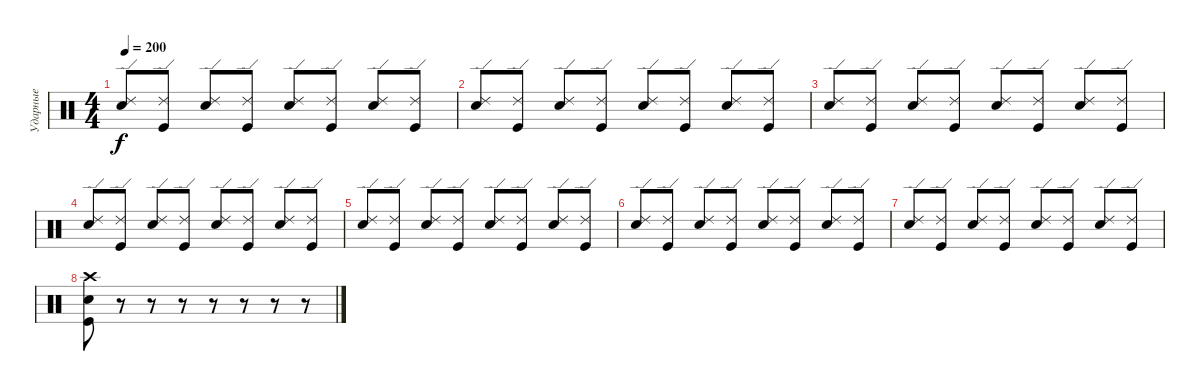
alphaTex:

\track ("Ударные" "Ударные") {instrument percussion}
\staff {score}
\articulation defaults
\ts (4 4)
\tempo 200
\clef neutral
\ks c
("Ride (edge) 2" "Electric Snare (hit)").8{dy f} ("Ride (edge) 2" "Kick (hit)").8 ("Ride (edge) 2" "Electric Snare (hit)").8 ("Ride (edge) 2" "Kick (hit)").8 ("Ride (edge) 2" "Electric Snare (hit)").8 ("Ride (edge) 2" "Kick (hit)").8 ("Ride (edge) 2" "Electric Snare (hit)").8 ("Ride (edge) 2" "Kick (hit)").8 |
("Ride (edge) 2" "Electric Snare (hit)").8 ("Ride (edge) 2" "Kick (hit)").8 ("Ride (edge) 2" "Electric Snare (hit)").8 ("Ride (edge) 2" "Kick (hit)").8 ("Ride (edge) 2" "Electric Snare (hit)").8 ("Ride (edge) 2" "Kick (hit)").8 ("Ride (edge) 2" "Electric Snare (hit)").8 ("Ride (edge) 2" "Kick (hit)").8 |
("Ride (edge) 2" "Electric Snare (hit)").8 ("Ride (edge) 2" "Kick (hit)").8 ("Ride (edge) 2" "Electric Snare (hit)").8 ("Ride (edge) 2" "Kick (hit)").8 ("Ride (edge) 2" "Electric Snare (hit)").8 ("Ride (edge) 2" "Kick (hit)").8 ("Ride (edge) 2" "Electric Snare (hit)").8 ("Ride (edge) 2" "Kick (hit)").8 |
("Ride (edge) 2" "Electric Snare (hit)").8 ("Ride (edge) 2" "Kick (hit)").8 ("Ride (edge) 2" "Electric Snare (hit)").8 ("Ride (edge) 2" "Kick (hit)").8 ("Ride (edge) 2" "Electric Snare (hit)").8 ("Ride (edge) 2" "Kick (hit)").8 ("Ride (edge) 2" "Electric Snare (hit)").8 ("Ride (edge) 2" "Kick (hit)").8 |
("Ride (edge) 2" "Electric Snare (hit)").8 ("Ride (edge) 2" "Kick (hit)").8 ("Ride (edge) 2" "Electric Snare (hit)").8 ("Ride (edge) 2" "Kick (hit)").8 ("Ride (edge) 2" "Electric Snare (hit)").8 ("Ride (edge) 2" "Kick (hit)").8 ("Ride (edge) 2" "Electric Snare (hit)").8 ("Ride (edge) 2" "Kick (hit)").8 |
("Ride (edge) 2" "Electric Snare (hit)").8 ("Ride (edge) 2" "Kick (hit)").8 ("Ride (edge) 2" "Electric Snare (hit)").8 ("Ride (edge) 2" "Kick (hit)").8 ("Ride (edge) 2" "Electric Snare (hit)").8 ("Ride (edge) 2" "Kick (hit)").8 ("Ride (edge) 2" "Electric Snare (hit)").8 ("Ride (edge) 2" "Kick (hit)").8 |
("Ride (edge) 2" "Electric Snare (hit)").8 ("Ride (edge) 2" "Kick (hit)").8 ("Ride (edge) 2" "Electric Snare (hit)").8 ("Ride (edge) 2" "Kick (hit)").8 ("Ride (edge) 2" "Electric Snare (hit)").8 ("Ride (edge) 2" "Kick (hit)").8 ("Ride (edge) 2" "Electric Snare (hit)").8 ("Ride (edge) 2" "Kick (hit)").8 |
("Crash high (hit)" "Kick (hit)" "Electric Snare (hit)").8 r.8 r.8 r.8 r.8 r.8 r.8 r.8
